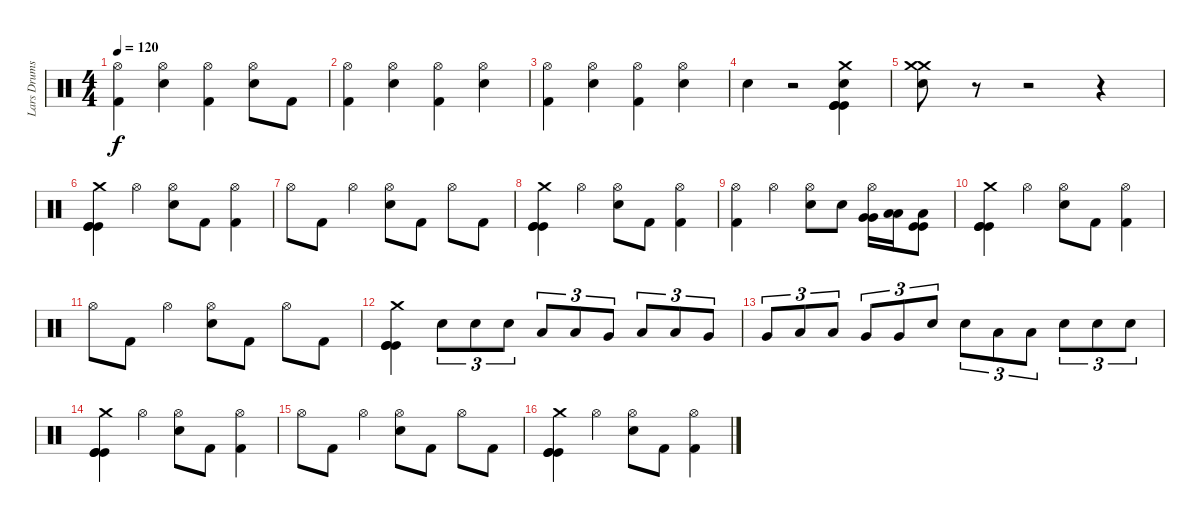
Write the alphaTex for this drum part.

\track ("Lars Drums" "Lars Drums") {instrument percussion}
\staff {score}
\articulation defaults
\ts (4 4)
\tempo 120
\clef neutral
\ks c
("Hi-Hat (open)" "Kick (hit) 2").4{dy f} ("Hi-Hat (open)" "Electric Snare (hit)").4 ("Hi-Hat (open)" "Kick (hit) 2").4 ("Hi-Hat (open)" "Electric Snare (hit)").8 "Kick (hit) 2".8 |
("Hi-Hat (open)" "Kick (hit) 2").4 ("Hi-Hat (open)" "Electric Snare (hit)").4 ("Hi-Hat (open)" "Kick (hit) 2").4 ("Hi-Hat (open)" "Electric Snare (hit)").4 |
("Hi-Hat (open)" "Kick (hit) 2").4 ("Hi-Hat (open)" "Electric Snare (hit)").4 ("Hi-Hat (open)" "Kick (hit) 2").4 ("Hi-Hat (open)" "Electric Snare (hit)").4 |
"Electric Snare (hit)".4 r.2 ("Electric Snare (hit)" "Kick (hit)" "Kick (hit)" "Kick (hit)" "Crash medium (hit)").4 |
("Electric Snare (hit)" "Crash medium (hit)" "Crash medium (hit)").8 r.8 r.2 r.4 |
("Kick (hit)" "Kick (hit)" "Kick (hit)" "Crash medium (hit)").4 "Hi-Hat (open)".4 ("Hi-Hat (open)" "Electric Snare (hit)").8 "Kick (hit) 2".8 ("Hi-Hat (open)" "Kick (hit) 2").4 |
"Hi-Hat (open)".8 "Kick (hit) 2".8 "Hi-Hat (open)".4 ("Hi-Hat (open)" "Electric Snare (hit)").8 "Kick (hit) 2".8 "Hi-Hat (open)".8 "Kick (hit) 2".8 |
("Kick (hit)" "Kick (hit)" "Kick (hit)" "Crash medium (hit)").4 "Hi-Hat (open)".4 ("Hi-Hat (open)" "Electric Snare (hit)").8 "Kick (hit) 2".8 ("Hi-Hat (open)" "Kick (hit) 2").4 |
("Hi-Hat (open)" "Kick (hit) 2").4 "Hi-Hat (open)".4 ("Hi-Hat (open)" "Electric Snare (hit)").8 "Electric Snare (hit)".8 ("Hi-Hat (open)" "Very Low Tom (hit)" "Very Low Tom (hit)").16 ("Low Floor Tom (hit)" "Low Floor Tom (hit)").16 ("Low Floor Tom (hit)" "Kick (hit)" "Kick (hit)").8 |
("Kick (hit)" "Kick (hit)" "Kick (hit)" "Crash medium (hit)").4 "Hi-Hat (open)".4 ("Hi-Hat (open)" "Electric Snare (hit)").8 "Kick (hit) 2".8 ("Hi-Hat (open)" "Kick (hit) 2").4 |
"Hi-Hat (open)".8 "Kick (hit) 2".8 "Hi-Hat (open)".4 ("Hi-Hat (open)" "Electric Snare (hit)").8 "Kick (hit) 2".8 "Hi-Hat (open)".8 "Kick (hit) 2".8 |
("Kick (hit)" "Kick (hit)" "Kick (hit)" "Crash medium (hit)").4 "Electric Snare (hit)".8{tu (3 2)} "Electric Snare (hit)".8{tu (3 2)} "Electric Snare (hit)".8{tu (3 2)} "Low Tom (hit)".8{tu (3 2)} "Low Tom (hit)".8{tu (3 2)} "Very Low Tom (hit)".8{tu (3 2)} "Low Tom (hit)".8{tu (3 2)} "Low Tom (hit)".8{tu (3 2)} "Very Low Tom (hit)".8{tu (3 2)} |
"Very Low Tom (hit)".8{tu (3 2)} "Low Tom (hit)".8{tu (3 2)} "Low Tom (hit)".8{tu (3 2)} "Very Low Tom (hit)".8{tu (3 2)} "Very Low Tom (hit)".8{tu (3 2)} "Electric Snare (hit)".8{tu (3 2)} "Electric Snare (hit)".8{tu (3 2)} "Low Tom (hit)".8{tu (3 2)} "Low Tom (hit)".8{tu (3 2)} "Electric Snare (hit)".8{tu (3 2)} "Electric Snare (hit)".8{tu (3 2)} "Electric Snare (hit)".8{tu (3 2)} |
("Kick (hit)" "Kick (hit)" "Kick (hit)" "Crash medium (hit)").4 "Hi-Hat (open)".4 ("Hi-Hat (open)" "Electric Snare (hit)").8 "Kick (hit) 2".8 ("Hi-Hat (open)" "Kick (hit) 2").4 |
"Hi-Hat (open)".8 "Kick (hit) 2".8 "Hi-Hat (open)".4 ("Hi-Hat (open)" "Electric Snare (hit)").8 "Kick (hit) 2".8 "Hi-Hat (open)".8 "Kick (hit) 2".8 |
("Kick (hit)" "Kick (hit)" "Kick (hit)" "Crash medium (hit)").4 "Hi-Hat (open)".4 ("Hi-Hat (open)" "Electric Snare (hit)").8 "Kick (hit) 2".8 ("Hi-Hat (open)" "Kick (hit) 2").4
